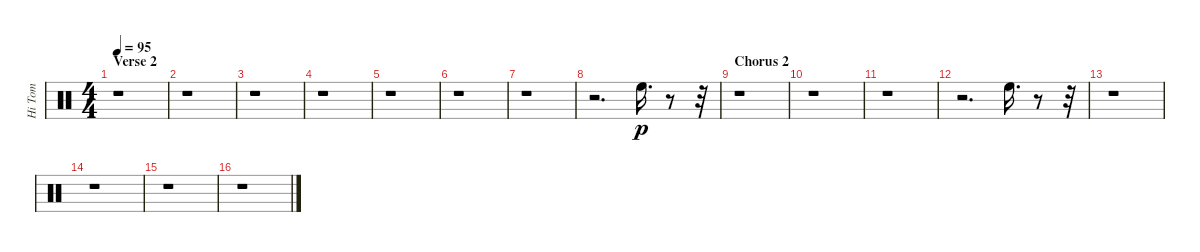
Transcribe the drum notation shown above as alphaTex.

\track ("Hi Tom" "Hi Tom") {instrument percussion}
\staff {score}
\articulation defaults
\ts (4 4)
\section ("" "Verse 2")
\tempo 95
\clef neutral
\ks c
r.1{dy p} |
r.1 |
r.1 |
r.1 |
r.1 |
r.1 |
r.1 |
r.2{d} "High Floor Tom (hit)".16{d} r.8 r.32 |
\section ("" "Chorus 2")
r.1 |
r.1 |
r.1 |
r.2{d} "High Floor Tom (hit)".16{d} r.8 r.32 |
r.1 |
r.1 |
r.1 |
r.1
